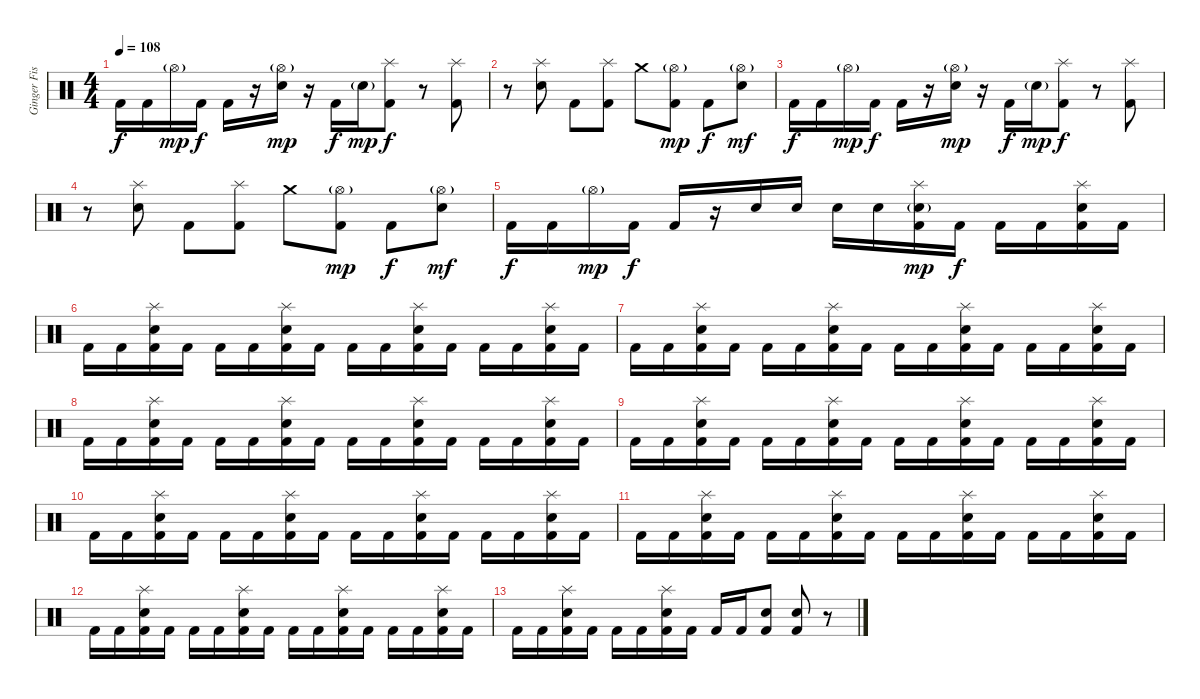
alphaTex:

\track ("Ginger Fish" "Ginger Fis") {instrument percussion}
\staff {score}
\articulation defaults
\ts (4 4)
\tempo 108
\clef neutral
\ks c "Kick (hit) 2".16{dy f} "Kick (hit) 2".16 "Hi-Hat (open)"{g}.16{dy mp} "Kick (hit) 2".16{dy f} "Kick (hit) 2".16
r.16 ("Hi-Hat (open)"{g} "Electric Snare (hit)").16{dy mp} r.16 "Kick (hit) 2".16{dy f} "Electric Snare (hit)"{g}.16{dy mp} ("Splash (hit)" "Kick (hit) 2").8{dy f} r.8 ("Splash (hit)" "Kick (hit) 2").8 |
r.8 ("Splash (hit)" "Electric Snare (hit)").8 "Kick (hit) 2".8 ("Splash (hit)" "Kick (hit) 2").8 "Crash medium (hit)".8 ("Hi-Hat (open)"{g} "Kick (hit) 2").8{dy mp} "Kick (hit) 2".8{dy f} ("Hi-Hat (open)"{g} "Electric Snare (hit)").8{dy mf} |
"Kick (hit) 2".16{dy f} "Kick (hit) 2".16 "Hi-Hat (open)"{g}.16{dy mp} "Kick (hit) 2".16{dy f} "Kick (hit) 2".16 r.16 ("Hi-Hat (open)"{g} "Electric Snare (hit)").16{dy mp} r.16 "Kick (hit) 2".16{dy f} "Electric Snare (hit)"{g}.16{dy mp} ("Splash (hit)" "Kick (hit) 2").8{dy f} r.8 ("Splash (hit)" "Kick (hit) 2").8 |
r.8 ("Splash (hit)" "Electric Snare (hit)").8 "Kick (hit) 2".8 ("Splash (hit)" "Kick (hit) 2").8 "Crash medium (hit)".8 ("Hi-Hat (open)"{g} "Kick (hit) 2").8{dy mp} "Kick (hit) 2".8{dy f} ("Hi-Hat (open)"{g} "Electric Snare (hit)").8{dy mf} |
"Kick (hit) 2".16{dy f} "Kick (hit) 2".16 "Hi-Hat (open)"{g}.16{dy mp} "Kick (hit) 2".16{dy f} "Kick (hit) 2".16 r.16 "Electric Snare (hit)".16 "Electric Snare (hit)".16 "Electric Snare (hit)".16 "Electric Snare (hit)".16 ("Splash (hit)" "Electric Snare (hit)"{g} "Kick (hit) 2").16{dy mp} "Kick (hit) 2".16{dy f} "Kick (hit) 2".16 "Kick (hit) 2".16 ("Splash (hit)" "Electric Snare (hit)" "Kick (hit) 2").16 "Kick (hit) 2".16 |
"Kick (hit) 2".16 "Kick (hit) 2".16 ("Splash (hit)" "Electric Snare (hit)" "Kick (hit) 2").16 "Kick (hit) 2".16 "Kick (hit) 2".16 "Kick (hit) 2".16 ("Splash (hit)" "Electric Snare (hit)" "Kick (hit) 2").16 "Kick (hit) 2".16 "Kick (hit) 2".16 "Kick (hit) 2".16 ("Splash (hit)" "Electric Snare (hit)" "Kick (hit) 2").16 "Kick (hit) 2".16 "Kick (hit) 2".16 "Kick (hit) 2".16 ("Splash (hit)" "Electric Snare (hit)" "Kick (hit) 2").16 "Kick (hit) 2".16 |
"Kick (hit) 2".16 "Kick (hit) 2".16 ("Splash (hit)" "Electric Snare (hit)" "Kick (hit) 2").16 "Kick (hit) 2".16 "Kick (hit) 2".16 "Kick (hit) 2".16 ("Splash (hit)" "Electric Snare (hit)" "Kick (hit) 2").16 "Kick (hit) 2".16 "Kick (hit) 2".16 "Kick (hit) 2".16 ("Splash (hit)" "Electric Snare (hit)" "Kick (hit) 2").16 "Kick (hit) 2".16 "Kick (hit) 2".16 "Kick (hit) 2".16 ("Splash (hit)" "Electric Snare (hit)" "Kick (hit) 2").16 "Kick (hit) 2".16 |
"Kick (hit) 2".16 "Kick (hit) 2".16 ("Splash (hit)" "Electric Snare (hit)" "Kick (hit) 2").16 "Kick (hit) 2".16 "Kick (hit) 2".16 "Kick (hit) 2".16 ("Splash (hit)" "Electric Snare (hit)" "Kick (hit) 2").16 "Kick (hit) 2".16 "Kick (hit) 2".16 "Kick (hit) 2".16 ("Splash (hit)" "Electric Snare (hit)" "Kick (hit) 2").16 "Kick (hit) 2".16 "Kick (hit) 2".16 "Kick (hit) 2".16 ("Splash (hit)" "Electric Snare (hit)" "Kick (hit) 2").16 "Kick (hit) 2".16 |
"Kick (hit) 2".16 "Kick (hit) 2".16 ("Splash (hit)" "Electric Snare (hit)" "Kick (hit) 2").16 "Kick (hit) 2".16 "Kick (hit) 2".16 "Kick (hit) 2".16 ("Splash (hit)" "Electric Snare (hit)" "Kick (hit) 2").16 "Kick (hit) 2".16 "Kick (hit) 2".16 "Kick (hit) 2".16 ("Splash (hit)" "Electric Snare (hit)" "Kick (hit) 2").16 "Kick (hit) 2".16 "Kick (hit) 2".16 "Kick (hit) 2".16 ("Splash (hit)" "Electric Snare (hit)" "Kick (hit) 2").16 "Kick (hit) 2".16 |
"Kick (hit) 2".16 "Kick (hit) 2".16 ("Splash (hit)" "Electric Snare (hit)" "Kick (hit) 2").16 "Kick (hit) 2".16 "Kick (hit) 2".16 "Kick (hit) 2".16 ("Splash (hit)" "Electric Snare (hit)" "Kick (hit) 2").16 "Kick (hit) 2".16 "Kick (hit) 2".16 "Kick (hit) 2".16 ("Splash (hit)" "Electric Snare (hit)" "Kick (hit) 2").16 "Kick (hit) 2".16 "Kick (hit) 2".16 "Kick (hit) 2".16 ("Splash (hit)" "Electric Snare (hit)" "Kick (hit) 2").16 "Kick (hit) 2".16 |
"Kick (hit) 2".16 "Kick (hit) 2".16 ("Splash (hit)" "Electric Snare (hit)" "Kick (hit) 2").16 "Kick (hit) 2".16 "Kick (hit) 2".16 "Kick (hit) 2".16 ("Splash (hit)" "Electric Snare (hit)" "Kick (hit) 2").16 "Kick (hit) 2".16 "Kick (hit) 2".16 "Kick (hit) 2".16 ("Splash (hit)" "Electric Snare (hit)" "Kick (hit) 2").16 "Kick (hit) 2".16 "Kick (hit) 2".16 "Kick (hit) 2".16 ("Splash (hit)" "Electric Snare (hit)" "Kick (hit) 2").16 "Kick (hit) 2".16 |
"Kick (hit) 2".16 "Kick (hit) 2".16 ("Splash (hit)" "Electric Snare (hit)" "Kick (hit) 2").16 "Kick (hit) 2".16 "Kick (hit) 2".16 "Kick (hit) 2".16 ("Splash (hit)" "Electric Snare (hit)" "Kick (hit) 2").16 "Kick (hit) 2".16 "Kick (hit) 2".16 "Kick (hit) 2".16 ("Splash (hit)" "Electric Snare (hit)" "Kick (hit) 2").16 "Kick (hit) 2".16 "Kick (hit) 2".16 "Kick (hit) 2".16 ("Splash (hit)" "Electric Snare (hit)" "Kick (hit) 2").16 "Kick (hit) 2".16 |
"Kick (hit) 2".16 "Kick (hit) 2".16 ("Splash (hit)" "Electric Snare (hit)" "Kick (hit) 2").16 "Kick (hit) 2".16 "Kick (hit) 2".16 "Kick (hit) 2".16 ("Splash (hit)" "Electric Snare (hit)" "Kick (hit) 2").16 "Kick (hit) 2".16 "Kick (hit) 2".16 "Kick (hit) 2".16 ("Snare (hit) 2" "Kick (hit) 2").8 ("Snare (hit) 2" "Kick (hit) 2").8 r.8
